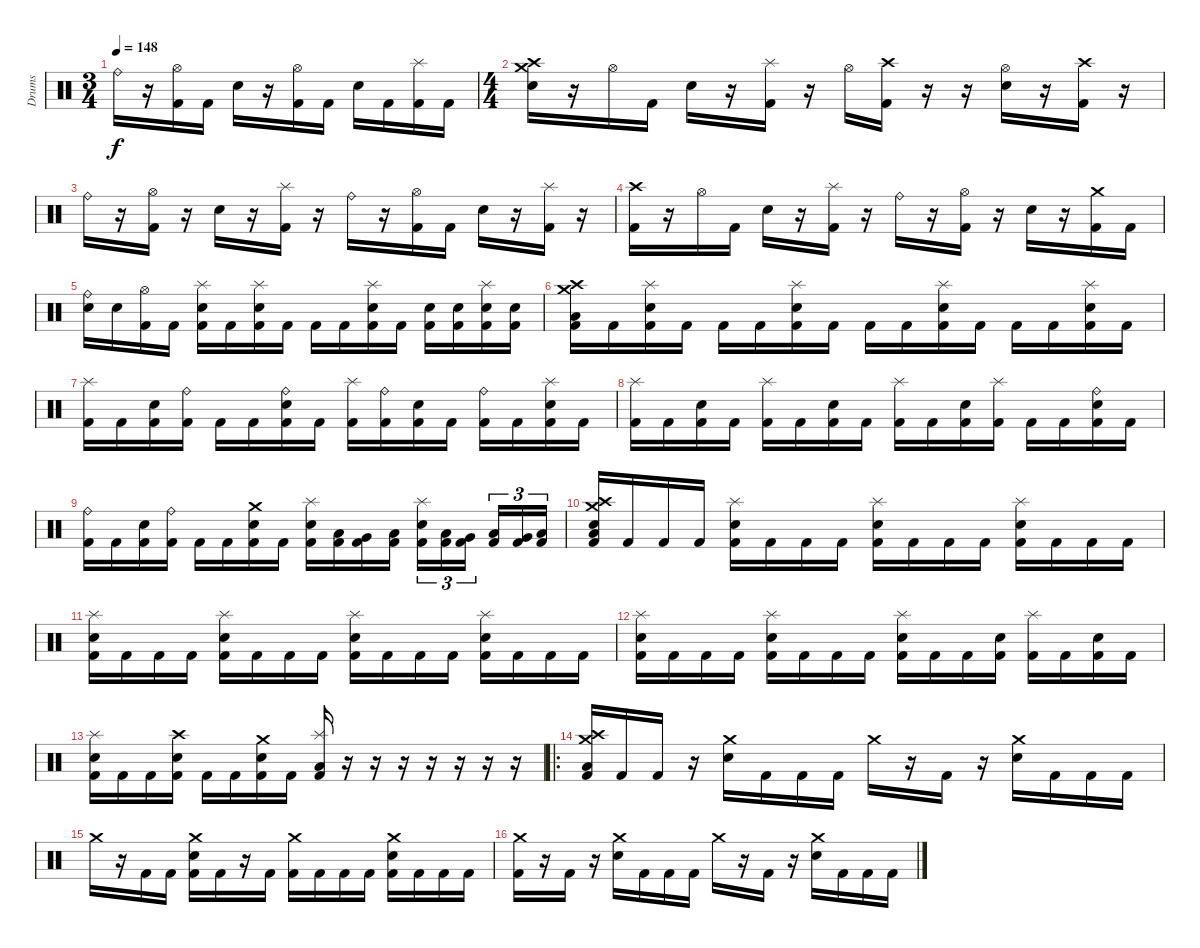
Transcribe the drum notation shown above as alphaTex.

\track ("Drums" "Drums") {instrument percussion}
\staff {score}
\articulation defaults
\ts (3 4)
\tempo 148
\clef neutral
\ks c "Ride (bell)".16{dy f}
r.16 ("Hi-Hat (open)" "Kick (hit) 2").16 "Kick (hit) 2".16 "Electric Snare (hit)".16 r.16 ("Hi-Hat (open)" "Kick (hit) 2").16 "Kick (hit) 2".16 "Electric Snare (hit)".16 "Kick (hit) 2".16 ("Splash (hit)" "Kick (hit) 2").16 "Kick (hit) 2".16 |
\ts (4 4)
("Crash medium (hit)" "Crash high (hit)" "Electric Snare (hit)").16 r.16 "Hi-Hat (open)".16 "Kick (hit) 2".16 "Electric Snare (hit)".16 r.16 ("Splash (hit)" "Kick (hit) 2").16 r.16 "Hi-Hat (open)".16 ("Crash high (hit)" "Kick (hit) 2").16 r.16 r.16 ("Hi-Hat (open)" "Electric Snare (hit)").16 r.16 ("Crash high (hit)" "Kick (hit) 2").16 r.16 |
"Ride (bell)".16 r.16 ("Hi-Hat (open)" "Kick (hit) 2").16 r.16 "Electric Snare (hit)".16 r.16 ("Splash (hit)" "Kick (hit) 2").16 r.16 "Ride (bell)".16 r.16 ("Hi-Hat (open)" "Kick (hit) 2").16 "Kick (hit) 2".16 "Electric Snare (hit)".16 r.16 ("Splash (hit)" "Kick (hit) 2").16 r.16 |
("Crash high (hit)" "Kick (hit) 2").16 r.16 "Hi-Hat (open)".16 "Kick (hit) 2".16 "Electric Snare (hit)".16 r.16 ("Splash (hit)" "Kick (hit) 2").16 r.16 "Ride (bell)".16 r.16 ("Hi-Hat (open)" "Kick (hit) 2").16 r.16 "Electric Snare (hit)".16 r.16 ("Crash medium (hit)" "Kick (hit) 2").16 "Kick (hit) 2".16 |
("Ride (bell)" "Electric Snare (hit)").16 "Electric Snare (hit)".16 ("Hi-Hat (open)" "Kick (hit) 2").16 "Kick (hit) 2".16 ("Splash (hit)" "Electric Snare (hit)" "Kick (hit) 2").16 "Kick (hit) 2".16 ("Splash (hit)" "Electric Snare (hit)" "Kick (hit) 2").16 "Kick (hit) 2".16 "Kick (hit) 2".16 "Kick (hit) 2".16 ("Splash (hit)" "Electric Snare (hit)" "Kick (hit) 2").16 "Kick (hit) 2".16 ("Electric Snare (hit)" "Kick (hit) 2").16 ("Electric Snare (hit)" "Kick (hit) 2").16 ("Splash (hit)" "Electric Snare (hit)" "Kick (hit) 2").16 ("Electric Snare (hit)" "Kick (hit) 2").16 |
("Crash high (hit)" "Crash medium (hit)" "Low Floor Tom (hit)" "Kick (hit) 2").16 "Kick (hit) 2".16 ("Splash (hit)" "Electric Snare (hit)" "Kick (hit) 2").16 "Kick (hit) 2".16 "Kick (hit) 2".16 "Kick (hit) 2".16 ("Splash (hit)" "Electric Snare (hit)" "Kick (hit) 2").16 "Kick (hit) 2".16 "Kick (hit) 2".16 "Kick (hit) 2".16 ("Splash (hit)" "Electric Snare (hit)" "Kick (hit) 2").16 "Kick (hit) 2".16 "Kick (hit) 2".16 "Kick (hit) 2".16 ("Splash (hit)" "Electric Snare (hit)" "Kick (hit) 2").16 "Kick (hit) 2".16 |
("Splash (hit)" "Kick (hit) 2").16 "Kick (hit) 2".16 ("Electric Snare (hit)" "Kick (hit) 2").16 ("Ride (bell)" "Kick (hit) 2").16 "Kick (hit) 2".16 "Kick (hit) 2".16 ("Ride (bell)" "Electric Snare (hit)" "Kick (hit) 2").16 "Kick (hit) 2".16 ("Splash (hit)" "Kick (hit) 2").16 ("Ride (bell)" "Kick (hit) 2").16 ("Electric Snare (hit)" "Kick (hit) 2").16 "Kick (hit) 2".16 ("Ride (bell)" "Kick (hit) 2").16 "Kick (hit) 2".16 ("Splash (hit)" "Electric Snare (hit)" "Kick (hit) 2").16 "Kick (hit) 2".16 |
("Splash (hit)" "Kick (hit) 2").16 "Kick (hit) 2".16 ("Electric Snare (hit)" "Kick (hit) 2").16 "Kick (hit) 2".16 ("Splash (hit)" "Kick (hit) 2").16 "Kick (hit) 2".16 ("Electric Snare (hit)" "Kick (hit) 2").16 "Kick (hit) 2".16 ("Splash (hit)" "Kick (hit) 2").16 "Kick (hit) 2".16 ("Electric Snare (hit)" "Kick (hit) 2").16 ("Splash (hit)" "Kick (hit) 2").16 "Kick (hit) 2".16 "Kick (hit) 2".16 ("Ride (bell)" "Electric Snare (hit)" "Kick (hit) 2").16 "Kick (hit) 2".16 |
("Ride (bell)" "Kick (hit) 2").16 "Kick (hit) 2".16 ("Electric Snare (hit)" "Kick (hit) 2").16 ("Ride (bell)" "Kick (hit) 2").16 "Kick (hit) 2".16 "Kick (hit) 2".16 ("Crash medium (hit)" "Electric Snare (hit)" "Kick (hit) 2").16 "Kick (hit) 2".16 ("Splash (hit)" "Electric Snare (hit)" "Kick (hit) 2").16 ("Low Tom (hit)" "Kick (hit) 2").16 ("Very Low Tom (hit)" "Kick (hit) 2").16 ("Low Floor Tom (hit)" "Kick (hit) 2").16 ("Splash (hit)" "Electric Snare (hit)" "Kick (hit) 2").16{tu (3 2)} ("Low Tom (hit)" "Kick (hit) 2").16{tu (3 2)} ("Very Low Tom (hit)" "Kick (hit) 2").16{tu (3 2)} ("Low Tom (hit)" "Kick (hit) 2").16{tu (3 2)} ("Very Low Tom (hit)" "Kick (hit) 2").16{tu (3 2)} ("Low Floor Tom (hit)" "Kick (hit) 2").16{tu (3 2)} |
("Crash high (hit)" "Crash medium (hit)" "Electric Snare (hit)" "Low Floor Tom (hit)" "Kick (hit) 2").16 "Kick (hit) 2".16 "Kick (hit) 2".16 "Kick (hit) 2".16 ("Splash (hit)" "Electric Snare (hit)" "Kick (hit) 2").16 "Kick (hit) 2".16 "Kick (hit) 2".16 "Kick (hit) 2".16 ("Splash (hit)" "Electric Snare (hit)" "Kick (hit) 2").16 "Kick (hit) 2".16 "Kick (hit) 2".16 "Kick (hit) 2".16 ("Splash (hit)" "Electric Snare (hit)" "Kick (hit) 2").16 "Kick (hit) 2".16 "Kick (hit) 2".16 "Kick (hit) 2".16 |
("Splash (hit)" "Electric Snare (hit)" "Kick (hit) 2").16 "Kick (hit) 2".16 "Kick (hit) 2".16 "Kick (hit) 2".16 ("Splash (hit)" "Electric Snare (hit)" "Kick (hit) 2").16 "Kick (hit) 2".16 "Kick (hit) 2".16 "Kick (hit) 2".16 ("Splash (hit)" "Electric Snare (hit)" "Kick (hit) 2").16 "Kick (hit) 2".16 "Kick (hit) 2".16 "Kick (hit) 2".16 ("Splash (hit)" "Electric Snare (hit)" "Kick (hit) 2").16 "Kick (hit) 2".16 "Kick (hit) 2".16 "Kick (hit) 2".16 |
("Splash (hit)" "Electric Snare (hit)" "Kick (hit) 2").16 "Kick (hit) 2".16 "Kick (hit) 2".16 "Kick (hit) 2".16 ("Splash (hit)" "Electric Snare (hit)" "Kick (hit) 2").16 "Kick (hit) 2".16 "Kick (hit) 2".16 "Kick (hit) 2".16 ("Splash (hit)" "Electric Snare (hit)" "Kick (hit) 2").16 "Kick (hit) 2".16 "Kick (hit) 2".16 ("Electric Snare (hit)" "Kick (hit) 2").16 ("Splash (hit)" "Kick (hit) 2").16 "Kick (hit) 2".16 ("Electric Snare (hit)" "Kick (hit) 2").16 "Kick (hit) 2".16 |
("Splash (hit)" "Electric Snare (hit)" "Kick (hit) 2").16 "Kick (hit) 2".16 "Kick (hit) 2".16 ("Crash high (hit)" "Electric Snare (hit)" "Kick (hit) 2").16 "Kick (hit) 2".16 "Kick (hit) 2".16 ("Crash medium (hit)" "Electric Snare (hit)" "Kick (hit) 2").16 "Kick (hit) 2".16 ("Splash (hit)" "Low Floor Tom (hit)" "Kick (hit) 2").16 r.16 r.16 r.16 r.16 r.16 r.16 r.16 |
\ro
("Crash high (hit)" "Crash medium (hit)" "Low Floor Tom (hit)" "Kick (hit) 2").16 "Kick (hit) 2".16 "Kick (hit) 2".16 r.16 ("Crash medium (hit)" "Electric Snare (hit)").16 "Kick (hit) 2".16 "Kick (hit) 2".16 "Kick (hit) 2".16 "Crash medium (hit)".16 r.16 "Kick (hit) 2".16 r.16 ("Crash medium (hit)" "Electric Snare (hit)").16 "Kick (hit) 2".16 "Kick (hit) 2".16 "Kick (hit) 2".16 |
"Crash medium (hit)".16 r.16 "Kick (hit) 2".16 "Kick (hit) 2".16 ("Crash medium (hit)" "Electric Snare (hit)" "Kick (hit) 2").16 "Kick (hit) 2".16 r.16 "Kick (hit) 2".16 ("Crash medium (hit)" "Kick (hit) 2").16 "Kick (hit) 2".16 "Kick (hit) 2".16 "Kick (hit) 2".16 ("Crash medium (hit)" "Electric Snare (hit)" "Kick (hit) 2").16 "Kick (hit) 2".16 "Kick (hit) 2".16 "Kick (hit) 2".16 |
("Crash medium (hit)" "Kick (hit) 2").16 r.16 "Kick (hit) 2".16 r.16 ("Crash medium (hit)" "Electric Snare (hit)").16 "Kick (hit) 2".16 "Kick (hit) 2".16 "Kick (hit) 2".16 "Crash medium (hit)".16 r.16 "Kick (hit) 2".16 r.16 ("Crash medium (hit)" "Electric Snare (hit)").16 "Kick (hit) 2".16 "Kick (hit) 2".16 "Kick (hit) 2".16
